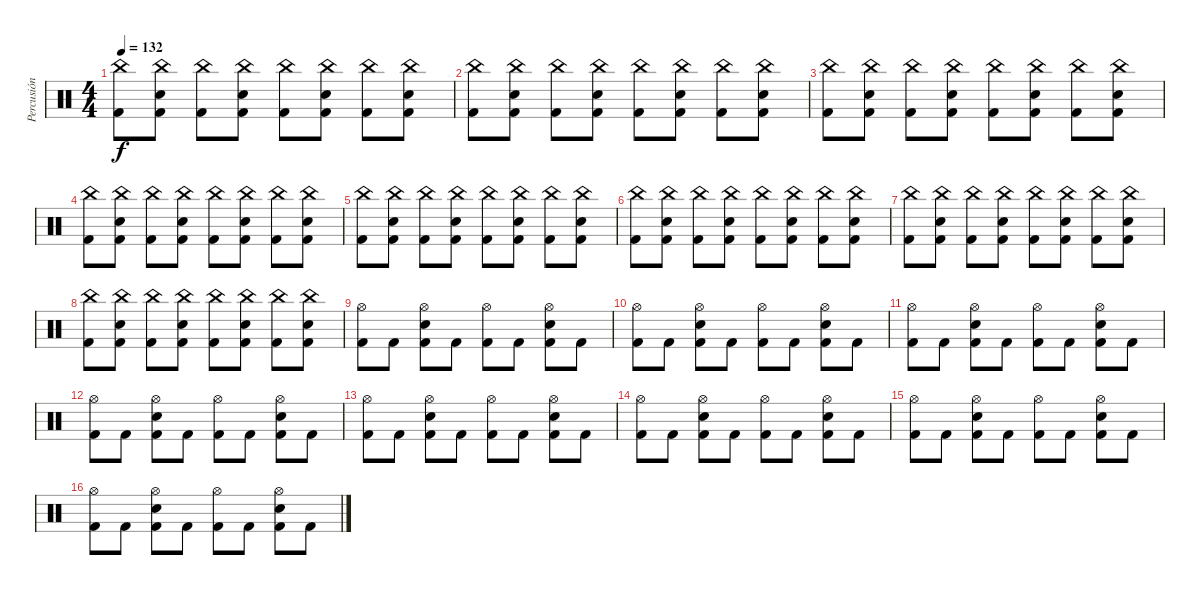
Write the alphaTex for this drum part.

\track ("Percusión" "Percusión") {instrument percussion}
\staff {score}
\articulation defaults
\ts (4 4)
\tempo 132
\clef neutral
\ks c
("China (hit)" "Kick (hit) 2").8{dy f} ("China (hit)" "Electric Snare (hit)" "Kick (hit) 2").8 ("China (hit)" "Kick (hit) 2").8 ("China (hit)" "Electric Snare (hit)" "Kick (hit) 2").8 ("China (hit)" "Kick (hit) 2").8 ("China (hit)" "Electric Snare (hit)" "Kick (hit) 2").8 ("China (hit)" "Kick (hit) 2").8 ("China (hit)" "Electric Snare (hit)" "Kick (hit) 2").8 |
("China (hit)" "Kick (hit) 2").8 ("China (hit)" "Electric Snare (hit)" "Kick (hit) 2").8 ("China (hit)" "Kick (hit) 2").8 ("China (hit)" "Electric Snare (hit)" "Kick (hit) 2").8 ("China (hit)" "Kick (hit) 2").8 ("China (hit)" "Electric Snare (hit)" "Kick (hit) 2").8 ("China (hit)" "Kick (hit) 2").8 ("China (hit)" "Electric Snare (hit)" "Kick (hit) 2").8 |
("China (hit)" "Kick (hit) 2").8 ("China (hit)" "Electric Snare (hit)" "Kick (hit) 2").8 ("China (hit)" "Kick (hit) 2").8 ("China (hit)" "Electric Snare (hit)" "Kick (hit) 2").8 ("China (hit)" "Kick (hit) 2").8 ("China (hit)" "Electric Snare (hit)" "Kick (hit) 2").8 ("China (hit)" "Kick (hit) 2").8 ("China (hit)" "Electric Snare (hit)" "Kick (hit) 2").8 |
("China (hit)" "Kick (hit) 2").8 ("China (hit)" "Electric Snare (hit)" "Kick (hit) 2").8 ("China (hit)" "Kick (hit) 2").8 ("China (hit)" "Electric Snare (hit)" "Kick (hit) 2").8 ("China (hit)" "Kick (hit) 2").8 ("China (hit)" "Electric Snare (hit)" "Kick (hit) 2").8 ("China (hit)" "Kick (hit) 2").8 ("China (hit)" "Electric Snare (hit)" "Kick (hit) 2").8 |
("China (hit)" "Kick (hit) 2").8 ("China (hit)" "Electric Snare (hit)" "Kick (hit) 2").8 ("China (hit)" "Kick (hit) 2").8 ("China (hit)" "Electric Snare (hit)" "Kick (hit) 2").8 ("China (hit)" "Kick (hit) 2").8 ("China (hit)" "Electric Snare (hit)" "Kick (hit) 2").8 ("China (hit)" "Kick (hit) 2").8 ("China (hit)" "Electric Snare (hit)" "Kick (hit) 2").8 |
("China (hit)" "Kick (hit) 2").8 ("China (hit)" "Electric Snare (hit)" "Kick (hit) 2").8 ("China (hit)" "Kick (hit) 2").8 ("China (hit)" "Electric Snare (hit)" "Kick (hit) 2").8 ("China (hit)" "Kick (hit) 2").8 ("China (hit)" "Electric Snare (hit)" "Kick (hit) 2").8 ("China (hit)" "Kick (hit) 2").8 ("China (hit)" "Electric Snare (hit)" "Kick (hit) 2").8 |
("China (hit)" "Kick (hit) 2").8 ("China (hit)" "Electric Snare (hit)" "Kick (hit) 2").8 ("China (hit)" "Kick (hit) 2").8 ("China (hit)" "Electric Snare (hit)" "Kick (hit) 2").8 ("China (hit)" "Kick (hit) 2").8 ("China (hit)" "Electric Snare (hit)" "Kick (hit) 2").8 ("China (hit)" "Kick (hit) 2").8 ("China (hit)" "Electric Snare (hit)" "Kick (hit) 2").8 |
("China (hit)" "Kick (hit) 2").8 ("China (hit)" "Electric Snare (hit)" "Kick (hit) 2").8 ("China (hit)" "Kick (hit) 2").8 ("China (hit)" "Electric Snare (hit)" "Kick (hit) 2").8 ("China (hit)" "Kick (hit) 2").8 ("China (hit)" "Electric Snare (hit)" "Kick (hit) 2").8 ("China (hit)" "Kick (hit) 2").8 ("China (hit)" "Electric Snare (hit)" "Kick (hit) 2").8 |
("Hi-Hat (open)" "Kick (hit) 2").8 "Kick (hit) 2".8 ("Hi-Hat (open)" "Electric Snare (hit)" "Kick (hit) 2").8 "Kick (hit) 2".8 ("Hi-Hat (open)" "Kick (hit) 2").8 "Kick (hit) 2".8 ("Hi-Hat (open)" "Electric Snare (hit)" "Kick (hit) 2").8 "Kick (hit) 2".8 |
("Hi-Hat (open)" "Kick (hit) 2").8 "Kick (hit) 2".8 ("Hi-Hat (open)" "Electric Snare (hit)" "Kick (hit) 2").8 "Kick (hit) 2".8 ("Hi-Hat (open)" "Kick (hit) 2").8 "Kick (hit) 2".8 ("Hi-Hat (open)" "Electric Snare (hit)" "Kick (hit) 2").8 "Kick (hit) 2".8 |
("Hi-Hat (open)" "Kick (hit) 2").8 "Kick (hit) 2".8 ("Hi-Hat (open)" "Electric Snare (hit)" "Kick (hit) 2").8 "Kick (hit) 2".8 ("Hi-Hat (open)" "Kick (hit) 2").8 "Kick (hit) 2".8 ("Hi-Hat (open)" "Electric Snare (hit)" "Kick (hit) 2").8 "Kick (hit) 2".8 |
("Hi-Hat (open)" "Kick (hit) 2").8 "Kick (hit) 2".8 ("Hi-Hat (open)" "Electric Snare (hit)" "Kick (hit) 2").8 "Kick (hit) 2".8 ("Hi-Hat (open)" "Kick (hit) 2").8 "Kick (hit) 2".8 ("Hi-Hat (open)" "Electric Snare (hit)" "Kick (hit) 2").8 "Kick (hit) 2".8 |
("Hi-Hat (open)" "Kick (hit) 2").8 "Kick (hit) 2".8 ("Hi-Hat (open)" "Electric Snare (hit)" "Kick (hit) 2").8 "Kick (hit) 2".8 ("Hi-Hat (open)" "Kick (hit) 2").8 "Kick (hit) 2".8 ("Hi-Hat (open)" "Electric Snare (hit)" "Kick (hit) 2").8 "Kick (hit) 2".8 |
("Hi-Hat (open)" "Kick (hit) 2").8 "Kick (hit) 2".8 ("Hi-Hat (open)" "Electric Snare (hit)" "Kick (hit) 2").8 "Kick (hit) 2".8 ("Hi-Hat (open)" "Kick (hit) 2").8 "Kick (hit) 2".8 ("Hi-Hat (open)" "Electric Snare (hit)" "Kick (hit) 2").8 "Kick (hit) 2".8 |
("Hi-Hat (open)" "Kick (hit) 2").8 "Kick (hit) 2".8 ("Hi-Hat (open)" "Electric Snare (hit)" "Kick (hit) 2").8 "Kick (hit) 2".8 ("Hi-Hat (open)" "Kick (hit) 2").8 "Kick (hit) 2".8 ("Hi-Hat (open)" "Electric Snare (hit)" "Kick (hit) 2").8 "Kick (hit) 2".8 |
("Hi-Hat (open)" "Kick (hit) 2").8 "Kick (hit) 2".8 ("Hi-Hat (open)" "Electric Snare (hit)" "Kick (hit) 2").8 "Kick (hit) 2".8 ("Hi-Hat (open)" "Kick (hit) 2").8 "Kick (hit) 2".8 ("Hi-Hat (open)" "Electric Snare (hit)" "Kick (hit) 2").8 "Kick (hit) 2".8
